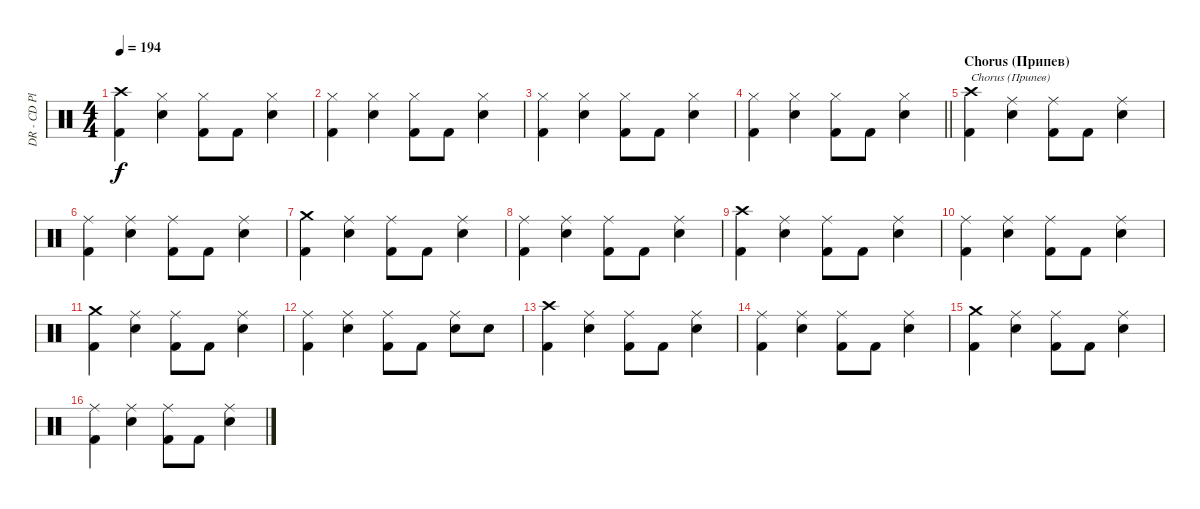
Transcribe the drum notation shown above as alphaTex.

\track ("DR - CD Player" "DR - CD Pl") {instrument percussion}
\staff {score}
\articulation defaults
\ts (4 4)
\tempo 194
\clef neutral
\ks c
("Kick (hit) 2" "Crash high (hit)").4{dy f} ("Snare (hit) 2" "Hi-Hat (closed)").4 ("Kick (hit) 2" "Hi-Hat (closed)").8 "Kick (hit) 2".8 ("Snare (hit) 2" "Hi-Hat (closed)").4 |
("Kick (hit) 2" "Hi-Hat (closed)").4 ("Snare (hit) 2" "Hi-Hat (closed)").4 ("Kick (hit) 2" "Hi-Hat (closed)").8 "Kick (hit) 2".8 ("Snare (hit) 2" "Hi-Hat (closed)").4 |
("Kick (hit) 2" "Hi-Hat (closed)").4 ("Snare (hit) 2" "Hi-Hat (closed)").4 ("Kick (hit) 2" "Hi-Hat (closed)").8 "Kick (hit) 2".8 ("Snare (hit) 2" "Hi-Hat (closed)").4 |
\barLineRight lightlight
("Kick (hit) 2" "Hi-Hat (closed)").4 ("Snare (hit) 2" "Hi-Hat (closed)").4 ("Kick (hit) 2" "Hi-Hat (closed)").8 "Kick (hit) 2".8 ("Snare (hit) 2" "Hi-Hat (closed)").4 |
\section ("" "Chorus (Припев)")
("Kick (hit) 2" "Crash high (hit)").4{txt "Chorus (Припев)"} ("Electric Snare (hit)" "Ride (middle)").4 ("Kick (hit) 2" "Ride (middle)").8 "Kick (hit) 2".8 ("Electric Snare (hit)" "Ride (middle)").4 |
("Kick (hit) 2" "Ride (middle)").4 ("Electric Snare (hit)" "Ride (middle)").4 ("Kick (hit) 2" "Ride (middle)").8 "Kick (hit) 2".8 ("Electric Snare (hit)" "Ride (middle)").4 |
("Kick (hit) 2" "Crash medium (hit)").4 ("Electric Snare (hit)" "Ride (middle)").4 ("Kick (hit) 2" "Ride (middle)").8 "Kick (hit) 2".8 ("Electric Snare (hit)" "Ride (middle)").4 |
("Kick (hit) 2" "Ride (middle)").4 ("Electric Snare (hit)" "Ride (middle)").4 ("Kick (hit) 2" "Ride (middle)").8 "Kick (hit) 2".8 ("Electric Snare (hit)" "Ride (middle)").4 |
("Kick (hit) 2" "Crash high (hit)").4 ("Electric Snare (hit)" "Ride (middle)").4 ("Kick (hit) 2" "Ride (middle)").8 "Kick (hit) 2".8 ("Electric Snare (hit)" "Ride (middle)").4 |
("Kick (hit) 2" "Ride (middle)").4 ("Electric Snare (hit)" "Ride (middle)").4 ("Kick (hit) 2" "Ride (middle)").8 "Kick (hit) 2".8 ("Electric Snare (hit)" "Ride (middle)").4 |
("Kick (hit) 2" "Crash medium (hit)").4 ("Electric Snare (hit)" "Ride (middle)").4 ("Kick (hit) 2" "Ride (middle)").8 "Kick (hit) 2".8 ("Electric Snare (hit)" "Ride (middle)").4 |
("Kick (hit) 2" "Ride (middle)").4 ("Electric Snare (hit)" "Ride (middle)").4 ("Kick (hit) 2" "Ride (middle)").8 "Kick (hit) 2".8 ("Electric Snare (hit)" "Ride (middle)").8 "Electric Snare (hit)".8 |
("Kick (hit) 2" "Crash high (hit)").4 ("Electric Snare (hit)" "Ride (middle)").4 ("Kick (hit) 2" "Ride (middle)").8 "Kick (hit) 2".8 ("Electric Snare (hit)" "Ride (middle)").4 |
("Kick (hit) 2" "Ride (middle)").4 ("Electric Snare (hit)" "Ride (middle)").4 ("Kick (hit) 2" "Ride (middle)").8 "Kick (hit) 2".8 ("Electric Snare (hit)" "Ride (middle)").4 |
("Kick (hit) 2" "Crash medium (hit)").4 ("Electric Snare (hit)" "Ride (middle)").4 ("Kick (hit) 2" "Ride (middle)").8 "Kick (hit) 2".8 ("Electric Snare (hit)" "Ride (middle)").4 |
("Kick (hit) 2" "Ride (middle)").4 ("Electric Snare (hit)" "Ride (middle)").4 ("Kick (hit) 2" "Ride (middle)").8 "Kick (hit) 2".8 ("Electric Snare (hit)" "Ride (middle)").4
